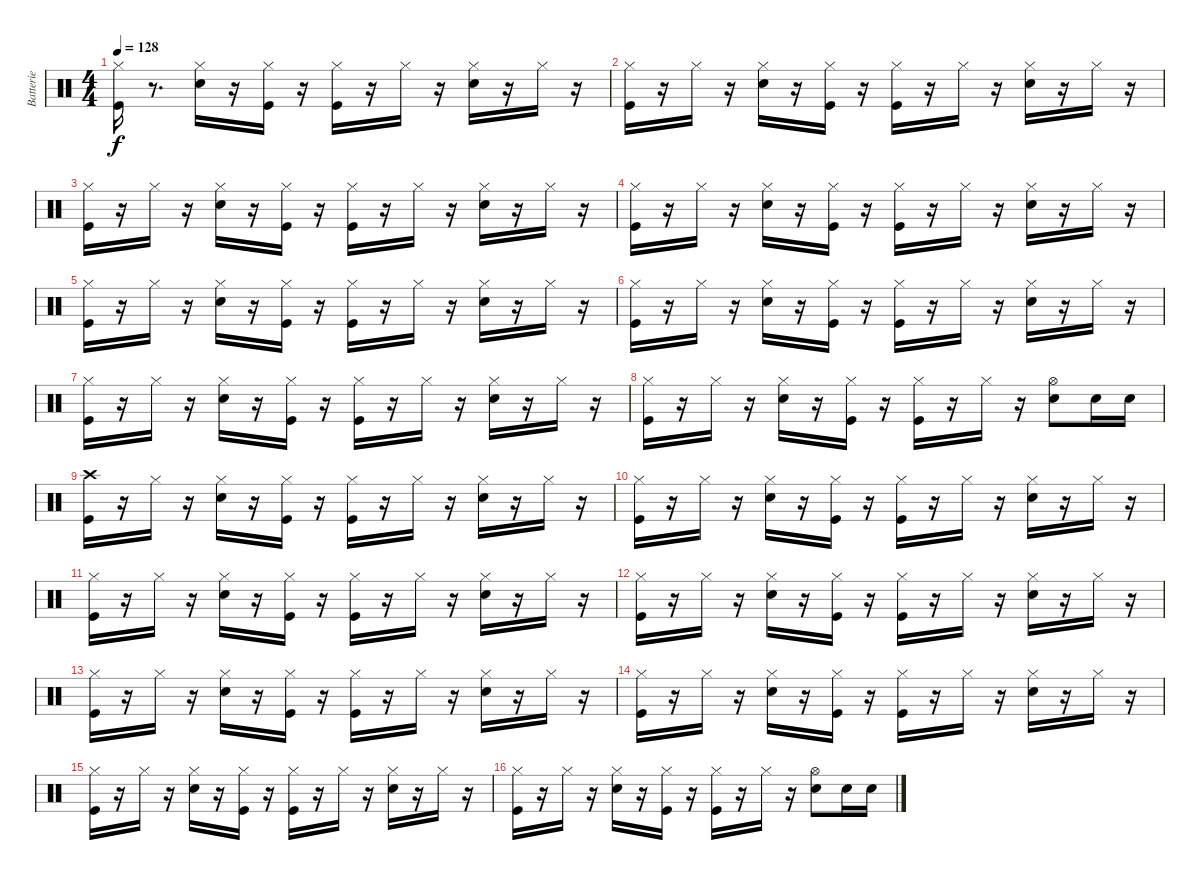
\track ("Batterie" "Batterie") {instrument percussion}
\staff {score}
\articulation defaults
\ts (4 4)
\tempo 128
\clef neutral
\ks c
("Kick (hit)" "Hi-Hat (closed)").16{dy f} r.8{d} ("Snare (hit) 2" "Hi-Hat (closed)").16 r.16 ("Kick (hit)" "Hi-Hat (closed)").16 r.16 ("Kick (hit)" "Hi-Hat (closed)").16 r.16 "Hi-Hat (closed)".16 r.16 ("Snare (hit) 2" "Hi-Hat (closed)").16 r.16 "Hi-Hat (closed)".16 r.16 |
("Kick (hit)" "Hi-Hat (closed)").16 r.16 "Hi-Hat (closed)".16 r.16 ("Snare (hit) 2" "Hi-Hat (closed)").16 r.16 ("Kick (hit)" "Hi-Hat (closed)").16 r.16 ("Kick (hit)" "Hi-Hat (closed)").16 r.16 "Hi-Hat (closed)".16 r.16 ("Snare (hit) 2" "Hi-Hat (closed)").16 r.16 "Hi-Hat (closed)".16 r.16 |
("Kick (hit)" "Hi-Hat (closed)").16 r.16 "Hi-Hat (closed)".16 r.16 ("Snare (hit) 2" "Hi-Hat (closed)").16 r.16 ("Kick (hit)" "Hi-Hat (closed)").16 r.16 ("Kick (hit)" "Hi-Hat (closed)").16 r.16 "Hi-Hat (closed)".16 r.16 ("Snare (hit) 2" "Hi-Hat (closed)").16 r.16 "Hi-Hat (closed)".16 r.16 |
("Kick (hit)" "Hi-Hat (closed)").16 r.16 "Hi-Hat (closed)".16 r.16 ("Snare (hit) 2" "Hi-Hat (closed)").16 r.16 ("Kick (hit)" "Hi-Hat (closed)").16 r.16 ("Kick (hit)" "Hi-Hat (closed)").16 r.16 "Hi-Hat (closed)".16 r.16 ("Snare (hit) 2" "Hi-Hat (closed)").16 r.16 "Hi-Hat (closed)".16 r.16 |
("Kick (hit)" "Hi-Hat (closed)").16 r.16 "Hi-Hat (closed)".16 r.16 ("Snare (hit) 2" "Hi-Hat (closed)").16 r.16 ("Kick (hit)" "Hi-Hat (closed)").16 r.16 ("Kick (hit)" "Hi-Hat (closed)").16 r.16 "Hi-Hat (closed)".16 r.16 ("Snare (hit) 2" "Hi-Hat (closed)").16 r.16 "Hi-Hat (closed)".16 r.16 |
("Kick (hit)" "Hi-Hat (closed)").16 r.16 "Hi-Hat (closed)".16 r.16 ("Snare (hit) 2" "Hi-Hat (closed)").16 r.16 ("Kick (hit)" "Hi-Hat (closed)").16 r.16 ("Kick (hit)" "Hi-Hat (closed)").16 r.16 "Hi-Hat (closed)".16 r.16 ("Snare (hit) 2" "Hi-Hat (closed)").16 r.16 "Hi-Hat (closed)".16 r.16 |
("Kick (hit)" "Hi-Hat (closed)").16 r.16 "Hi-Hat (closed)".16 r.16 ("Snare (hit) 2" "Hi-Hat (closed)").16 r.16 ("Kick (hit)" "Hi-Hat (closed)").16 r.16 ("Kick (hit)" "Hi-Hat (closed)").16 r.16 "Hi-Hat (closed)".16 r.16 ("Snare (hit) 2" "Hi-Hat (closed)").16 r.16 "Hi-Hat (closed)".16 r.16 |
("Kick (hit)" "Hi-Hat (closed)").16 r.16 "Hi-Hat (closed)".16 r.16 ("Snare (hit) 2" "Hi-Hat (closed)").16 r.16 ("Kick (hit)" "Hi-Hat (closed)").16 r.16 ("Kick (hit)" "Hi-Hat (closed)").16 r.16 "Hi-Hat (closed)".16 r.16 ("Hi-Hat (open)" "Snare (hit) 2").8 "Snare (hit) 2".16 "Snare (hit) 2".16 |
("Crash high (hit)" "Kick (hit)").16 r.16 "Hi-Hat (closed)".16 r.16 ("Snare (hit) 2" "Hi-Hat (closed)").16 r.16 ("Kick (hit)" "Hi-Hat (closed)").16 r.16 ("Kick (hit)" "Hi-Hat (closed)").16 r.16 "Hi-Hat (closed)".16 r.16 ("Snare (hit) 2" "Hi-Hat (closed)").16 r.16 "Hi-Hat (closed)".16 r.16 |
("Kick (hit)" "Hi-Hat (closed)").16 r.16 "Hi-Hat (closed)".16 r.16 ("Snare (hit) 2" "Hi-Hat (closed)").16 r.16 ("Kick (hit)" "Hi-Hat (closed)").16 r.16 ("Kick (hit)" "Hi-Hat (closed)").16 r.16 "Hi-Hat (closed)".16 r.16 ("Snare (hit) 2" "Hi-Hat (closed)").16 r.16 "Hi-Hat (closed)".16 r.16 |
("Kick (hit)" "Hi-Hat (closed)").16 r.16 "Hi-Hat (closed)".16 r.16 ("Snare (hit) 2" "Hi-Hat (closed)").16 r.16 ("Kick (hit)" "Hi-Hat (closed)").16 r.16 ("Kick (hit)" "Hi-Hat (closed)").16 r.16 "Hi-Hat (closed)".16 r.16 ("Snare (hit) 2" "Hi-Hat (closed)").16 r.16 "Hi-Hat (closed)".16 r.16 |
("Kick (hit)" "Hi-Hat (closed)").16 r.16 "Hi-Hat (closed)".16 r.16 ("Snare (hit) 2" "Hi-Hat (closed)").16 r.16 ("Kick (hit)" "Hi-Hat (closed)").16 r.16 ("Kick (hit)" "Hi-Hat (closed)").16 r.16 "Hi-Hat (closed)".16 r.16 ("Snare (hit) 2" "Hi-Hat (closed)").16 r.16 "Hi-Hat (closed)".16 r.16 |
("Kick (hit)" "Hi-Hat (closed)").16 r.16 "Hi-Hat (closed)".16 r.16 ("Snare (hit) 2" "Hi-Hat (closed)").16 r.16 ("Kick (hit)" "Hi-Hat (closed)").16 r.16 ("Kick (hit)" "Hi-Hat (closed)").16 r.16 "Hi-Hat (closed)".16 r.16 ("Snare (hit) 2" "Hi-Hat (closed)").16 r.16 "Hi-Hat (closed)".16 r.16 |
("Kick (hit)" "Hi-Hat (closed)").16 r.16 "Hi-Hat (closed)".16 r.16 ("Snare (hit) 2" "Hi-Hat (closed)").16 r.16 ("Kick (hit)" "Hi-Hat (closed)").16 r.16 ("Kick (hit)" "Hi-Hat (closed)").16 r.16 "Hi-Hat (closed)".16 r.16 ("Snare (hit) 2" "Hi-Hat (closed)").16 r.16 "Hi-Hat (closed)".16 r.16 |
("Kick (hit)" "Hi-Hat (closed)").16 r.16 "Hi-Hat (closed)".16 r.16 ("Snare (hit) 2" "Hi-Hat (closed)").16 r.16 ("Kick (hit)" "Hi-Hat (closed)").16 r.16 ("Kick (hit)" "Hi-Hat (closed)").16 r.16 "Hi-Hat (closed)".16 r.16 ("Snare (hit) 2" "Hi-Hat (closed)").16 r.16 "Hi-Hat (closed)".16 r.16 |
("Kick (hit)" "Hi-Hat (closed)").16 r.16 "Hi-Hat (closed)".16 r.16 ("Snare (hit) 2" "Hi-Hat (closed)").16 r.16 ("Kick (hit)" "Hi-Hat (closed)").16 r.16 ("Kick (hit)" "Hi-Hat (closed)").16 r.16 "Hi-Hat (closed)".16 r.16 ("Hi-Hat (open)" "Snare (hit) 2").8 "Snare (hit) 2".16 "Snare (hit) 2".16
